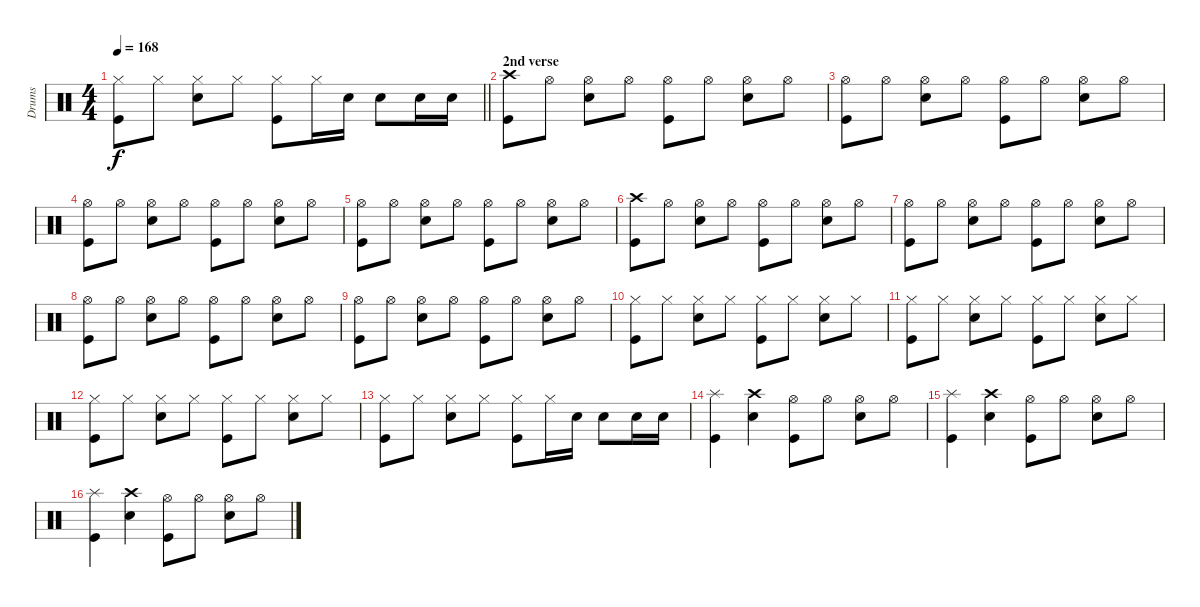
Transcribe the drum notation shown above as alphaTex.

\track ("Drums" "Drums") {instrument percussion}
\staff {score}
\articulation defaults
\ts (4 4)
\tempo 168
\clef neutral
\barLineRight lightlight
\ks c
("Hi-Hat (closed)" "Kick (hit)").8{dy f} "Hi-Hat (closed)".8 ("Hi-Hat (closed)" "Snare (hit) 2").8 "Hi-Hat (closed)".8 ("Hi-Hat (closed)" "Kick (hit)").8 "Hi-Hat (closed)".16 "Snare (hit) 2".16 "Snare (hit) 2".8 "Snare (hit) 2".16 "Snare (hit) 2".16 |
\section ("" "2nd verse")
("Crash high (hit)" "Kick (hit)").8 "Hi-Hat (open)".8 ("Hi-Hat (open)" "Snare (hit) 2").8 "Hi-Hat (open)".8 ("Hi-Hat (open)" "Kick (hit)").8 "Hi-Hat (open)".8 ("Hi-Hat (open)" "Snare (hit) 2").8 "Hi-Hat (open)".8 |
("Hi-Hat (open)" "Kick (hit)").8 "Hi-Hat (open)".8 ("Hi-Hat (open)" "Snare (hit) 2").8 "Hi-Hat (open)".8 ("Hi-Hat (open)" "Kick (hit)").8 "Hi-Hat (open)".8 ("Hi-Hat (open)" "Snare (hit) 2").8 "Hi-Hat (open)".8 |
("Hi-Hat (open)" "Kick (hit)").8 "Hi-Hat (open)".8 ("Hi-Hat (open)" "Snare (hit) 2").8 "Hi-Hat (open)".8 ("Hi-Hat (open)" "Kick (hit)").8 "Hi-Hat (open)".8 ("Hi-Hat (open)" "Snare (hit) 2").8 "Hi-Hat (open)".8 |
("Hi-Hat (open)" "Kick (hit)").8 "Hi-Hat (open)".8 ("Hi-Hat (open)" "Snare (hit) 2").8 "Hi-Hat (open)".8 ("Hi-Hat (open)" "Kick (hit)").8 "Hi-Hat (open)".8 ("Hi-Hat (open)" "Snare (hit) 2").8 "Hi-Hat (open)".8 |
("Crash high (hit)" "Kick (hit)").8 "Hi-Hat (open)".8 ("Hi-Hat (open)" "Snare (hit) 2").8 "Hi-Hat (open)".8 ("Hi-Hat (open)" "Kick (hit)").8 "Hi-Hat (open)".8 ("Hi-Hat (open)" "Snare (hit) 2").8 "Hi-Hat (open)".8 |
("Hi-Hat (open)" "Kick (hit)").8 "Hi-Hat (open)".8 ("Hi-Hat (open)" "Snare (hit) 2").8 "Hi-Hat (open)".8 ("Hi-Hat (open)" "Kick (hit)").8 "Hi-Hat (open)".8 ("Hi-Hat (open)" "Snare (hit) 2").8 "Hi-Hat (open)".8 |
("Hi-Hat (open)" "Kick (hit)").8 "Hi-Hat (open)".8 ("Hi-Hat (open)" "Snare (hit) 2").8 "Hi-Hat (open)".8 ("Hi-Hat (open)" "Kick (hit)").8 "Hi-Hat (open)".8 ("Hi-Hat (open)" "Snare (hit) 2").8 "Hi-Hat (open)".8 |
("Hi-Hat (open)" "Kick (hit)").8 "Hi-Hat (open)".8 ("Hi-Hat (open)" "Snare (hit) 2").8 "Hi-Hat (open)".8 ("Hi-Hat (open)" "Kick (hit)").8 "Hi-Hat (open)".8 ("Hi-Hat (open)" "Snare (hit) 2").8 "Hi-Hat (open)".8 |
("Hi-Hat (closed)" "Kick (hit)").8 "Hi-Hat (closed)".8 ("Hi-Hat (closed)" "Snare (hit) 2").8 "Hi-Hat (closed)".8 ("Hi-Hat (closed)" "Kick (hit)").8 "Hi-Hat (closed)".8 ("Hi-Hat (closed)" "Snare (hit) 2").8 "Hi-Hat (closed)".8 |
("Hi-Hat (closed)" "Kick (hit)").8 "Hi-Hat (closed)".8 ("Hi-Hat (closed)" "Snare (hit) 2").8 "Hi-Hat (closed)".8 ("Hi-Hat (closed)" "Kick (hit)").8 "Hi-Hat (closed)".8 ("Hi-Hat (closed)" "Snare (hit) 2").8 "Hi-Hat (closed)".8 |
("Hi-Hat (closed)" "Kick (hit)").8 "Hi-Hat (closed)".8 ("Hi-Hat (closed)" "Snare (hit) 2").8 "Hi-Hat (closed)".8 ("Hi-Hat (closed)" "Kick (hit)").8 "Hi-Hat (closed)".8 ("Hi-Hat (closed)" "Snare (hit) 2").8 "Hi-Hat (closed)".8 |
("Hi-Hat (closed)" "Kick (hit)").8 "Hi-Hat (closed)".8 ("Hi-Hat (closed)" "Snare (hit) 2").8 "Hi-Hat (closed)".8 ("Hi-Hat (closed)" "Kick (hit)").8 "Hi-Hat (closed)".16 "Snare (hit) 2".16 "Snare (hit) 2".8 "Snare (hit) 2".16 "Snare (hit) 2".16 |
("Splash (hit)" "Kick (hit)").4 ("Crash high (hit)" "Snare (hit) 2").4 ("Hi-Hat (open)" "Kick (hit)").8 "Hi-Hat (open)".8 ("Hi-Hat (open)" "Snare (hit) 2").8 "Hi-Hat (open)".8 |
("Splash (hit)" "Kick (hit)").4 ("Crash high (hit)" "Snare (hit) 2").4 ("Hi-Hat (open)" "Kick (hit)").8 "Hi-Hat (open)".8 ("Hi-Hat (open)" "Snare (hit) 2").8 "Hi-Hat (open)".8 |
("Splash (hit)" "Kick (hit)").4 ("Crash high (hit)" "Snare (hit) 2").4 ("Hi-Hat (open)" "Kick (hit)").8 "Hi-Hat (open)".8 ("Hi-Hat (open)" "Snare (hit) 2").8 "Hi-Hat (open)".8
